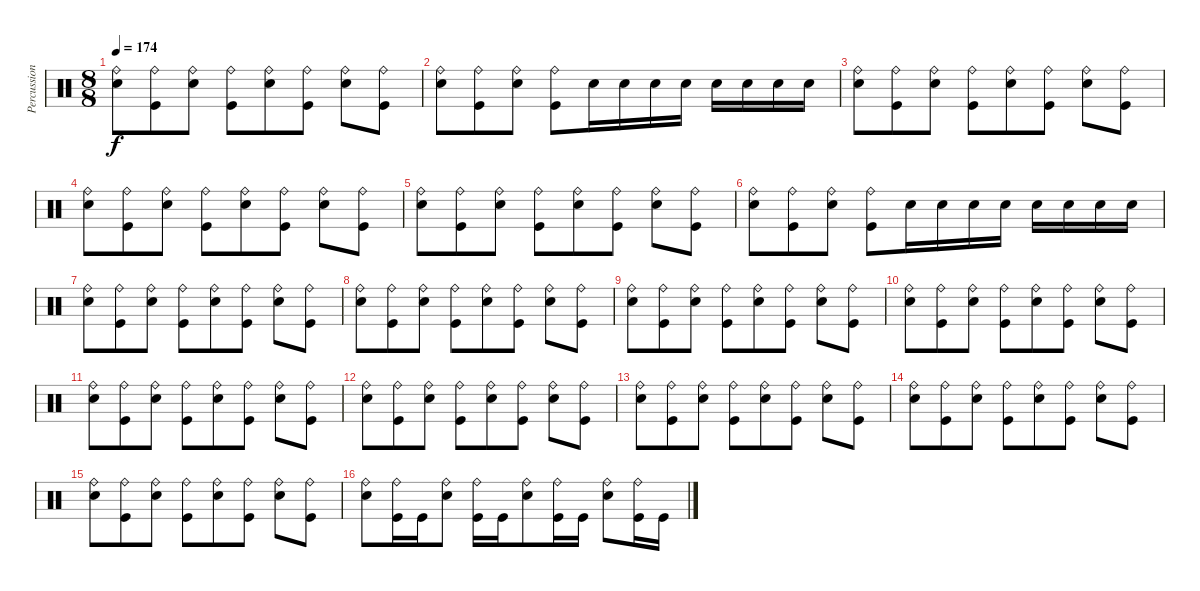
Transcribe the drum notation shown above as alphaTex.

\track ("Percussions" "Percussion") {instrument percussion}
\staff {score}
\articulation defaults
\ts (8 8)
\tempo 174
\clef neutral
\ks c
("Electric Snare (hit)" "Ride (bell)").8{dy f} ("Kick (hit)" "Ride (bell)").8 ("Electric Snare (hit)" "Ride (bell)").8 ("Kick (hit)" "Ride (bell)").8 ("Electric Snare (hit)" "Ride (bell)").8 ("Kick (hit)" "Ride (bell)").8 ("Electric Snare (hit)" "Ride (bell)").8 ("Kick (hit)" "Ride (bell)").8 |
("Electric Snare (hit)" "Ride (bell)").8 ("Kick (hit)" "Ride (bell)").8 ("Electric Snare (hit)" "Ride (bell)").8 ("Kick (hit)" "Ride (bell)").8 "Electric Snare (hit)".16 "Electric Snare (hit)".16 "Electric Snare (hit)".16 "Electric Snare (hit)".16 "Electric Snare (hit)".16 "Electric Snare (hit)".16 "Electric Snare (hit)".16 "Electric Snare (hit)".16 |
("Electric Snare (hit)" "Ride (bell)").8 ("Kick (hit)" "Ride (bell)").8 ("Electric Snare (hit)" "Ride (bell)").8 ("Kick (hit)" "Ride (bell)").8 ("Electric Snare (hit)" "Ride (bell)").8 ("Kick (hit)" "Ride (bell)").8 ("Electric Snare (hit)" "Ride (bell)").8 ("Kick (hit)" "Ride (bell)").8 |
("Electric Snare (hit)" "Ride (bell)").8 ("Kick (hit)" "Ride (bell)").8 ("Electric Snare (hit)" "Ride (bell)").8 ("Kick (hit)" "Ride (bell)").8 ("Electric Snare (hit)" "Ride (bell)").8 ("Kick (hit)" "Ride (bell)").8 ("Electric Snare (hit)" "Ride (bell)").8 ("Kick (hit)" "Ride (bell)").8 |
("Electric Snare (hit)" "Ride (bell)").8 ("Kick (hit)" "Ride (bell)").8 ("Electric Snare (hit)" "Ride (bell)").8 ("Kick (hit)" "Ride (bell)").8 ("Electric Snare (hit)" "Ride (bell)").8 ("Kick (hit)" "Ride (bell)").8 ("Electric Snare (hit)" "Ride (bell)").8 ("Kick (hit)" "Ride (bell)").8 |
("Electric Snare (hit)" "Ride (bell)").8 ("Kick (hit)" "Ride (bell)").8 ("Electric Snare (hit)" "Ride (bell)").8 ("Kick (hit)" "Ride (bell)").8 "Electric Snare (hit)".16 "Electric Snare (hit)".16 "Electric Snare (hit)".16 "Electric Snare (hit)".16 "Electric Snare (hit)".16 "Electric Snare (hit)".16 "Electric Snare (hit)".16 "Electric Snare (hit)".16 |
("Electric Snare (hit)" "Ride (bell)").8 ("Kick (hit)" "Ride (bell)").8 ("Electric Snare (hit)" "Ride (bell)").8 ("Kick (hit)" "Ride (bell)").8 ("Electric Snare (hit)" "Ride (bell)").8 ("Kick (hit)" "Ride (bell)").8 ("Electric Snare (hit)" "Ride (bell)").8 ("Kick (hit)" "Ride (bell)").8 |
("Electric Snare (hit)" "Ride (bell)").8 ("Kick (hit)" "Ride (bell)").8 ("Electric Snare (hit)" "Ride (bell)").8 ("Kick (hit)" "Ride (bell)").8 ("Electric Snare (hit)" "Ride (bell)").8 ("Kick (hit)" "Ride (bell)").8 ("Electric Snare (hit)" "Ride (bell)").8 ("Kick (hit)" "Ride (bell)").8 |
("Electric Snare (hit)" "Ride (bell)").8 ("Kick (hit)" "Ride (bell)").8 ("Electric Snare (hit)" "Ride (bell)").8 ("Kick (hit)" "Ride (bell)").8 ("Electric Snare (hit)" "Ride (bell)").8 ("Kick (hit)" "Ride (bell)").8 ("Electric Snare (hit)" "Ride (bell)").8 ("Kick (hit)" "Ride (bell)").8 |
("Electric Snare (hit)" "Ride (bell)").8 ("Kick (hit)" "Ride (bell)").8 ("Electric Snare (hit)" "Ride (bell)").8 ("Kick (hit)" "Ride (bell)").8 ("Electric Snare (hit)" "Ride (bell)").8 ("Kick (hit)" "Ride (bell)").8 ("Electric Snare (hit)" "Ride (bell)").8 ("Kick (hit)" "Ride (bell)").8 |
("Electric Snare (hit)" "Ride (bell)").8 ("Kick (hit)" "Ride (bell)").8 ("Electric Snare (hit)" "Ride (bell)").8 ("Kick (hit)" "Ride (bell)").8 ("Electric Snare (hit)" "Ride (bell)").8 ("Kick (hit)" "Ride (bell)").8 ("Electric Snare (hit)" "Ride (bell)").8 ("Kick (hit)" "Ride (bell)").8 |
("Electric Snare (hit)" "Ride (bell)").8 ("Kick (hit)" "Ride (bell)").8 ("Electric Snare (hit)" "Ride (bell)").8 ("Kick (hit)" "Ride (bell)").8 ("Electric Snare (hit)" "Ride (bell)").8 ("Kick (hit)" "Ride (bell)").8 ("Electric Snare (hit)" "Ride (bell)").8 ("Kick (hit)" "Ride (bell)").8 |
("Electric Snare (hit)" "Ride (bell)").8 ("Kick (hit)" "Ride (bell)").8 ("Electric Snare (hit)" "Ride (bell)").8 ("Kick (hit)" "Ride (bell)").8 ("Electric Snare (hit)" "Ride (bell)").8 ("Kick (hit)" "Ride (bell)").8 ("Electric Snare (hit)" "Ride (bell)").8 ("Kick (hit)" "Ride (bell)").8 |
("Electric Snare (hit)" "Ride (bell)").8 ("Kick (hit)" "Ride (bell)").8 ("Electric Snare (hit)" "Ride (bell)").8 ("Kick (hit)" "Ride (bell)").8 ("Electric Snare (hit)" "Ride (bell)").8 ("Kick (hit)" "Ride (bell)").8 ("Electric Snare (hit)" "Ride (bell)").8 ("Kick (hit)" "Ride (bell)").8 |
("Electric Snare (hit)" "Ride (bell)").8 ("Kick (hit)" "Ride (bell)").8 ("Electric Snare (hit)" "Ride (bell)").8 ("Kick (hit)" "Ride (bell)").8 ("Electric Snare (hit)" "Ride (bell)").8 ("Kick (hit)" "Ride (bell)").8 ("Electric Snare (hit)" "Ride (bell)").8 ("Kick (hit)" "Ride (bell)").8 |
("Electric Snare (hit)" "Ride (bell)").8 ("Kick (hit)" "Ride (bell)").16 "Kick (hit)".16 ("Electric Snare (hit)" "Ride (bell)").8 ("Kick (hit)" "Ride (bell)").16 "Kick (hit)".16 ("Electric Snare (hit)" "Ride (bell)").8 ("Kick (hit)" "Ride (bell)").16 "Kick (hit)".16 ("Electric Snare (hit)" "Ride (bell)").8 ("Kick (hit)" "Ride (bell)").16 "Kick (hit)".16
